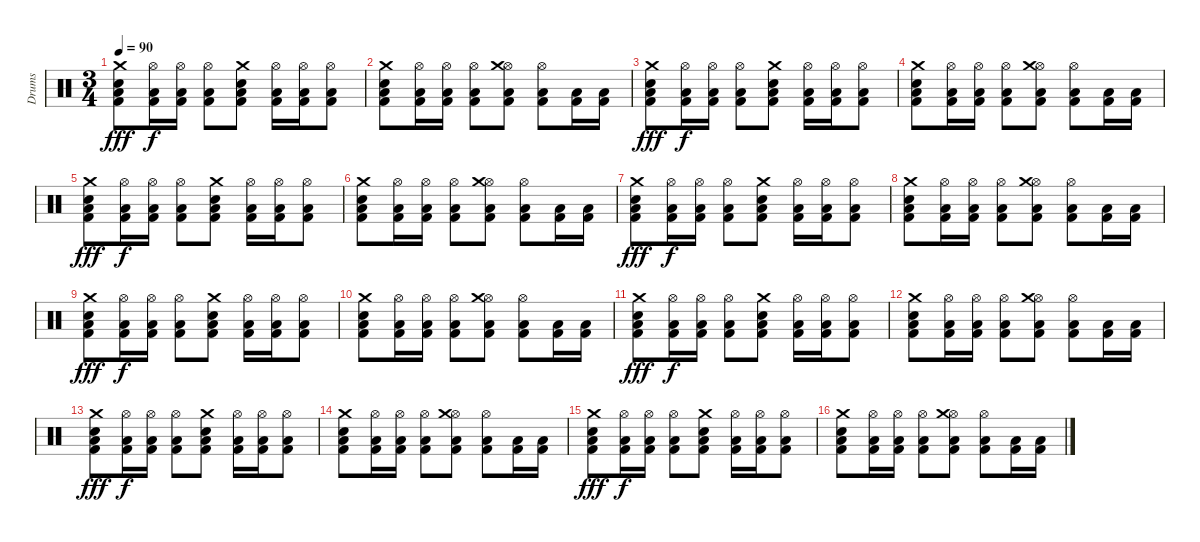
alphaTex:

\track ("Drums" "Drums") {instrument percussion}
\staff {score}
\articulation defaults
\ts (3 4)
\tempo 90
\clef neutral
\ks c
("Kick (hit) 2" "Low Floor Tom (hit)" "Electric Snare (hit)" "Crash medium (hit)").8{dy fff} ("Kick (hit) 2" "Low Floor Tom (hit)" "Hi-Hat (open)").16{dy f} ("Kick (hit) 2" "Low Floor Tom (hit)" "Hi-Hat (open)").16 ("Kick (hit) 2" "Low Floor Tom (hit)" "Hi-Hat (open)").8 ("Kick (hit) 2" "Low Floor Tom (hit)" "Electric Snare (hit)" "Crash medium (hit)").8 ("Kick (hit) 2" "Low Floor Tom (hit)" "Hi-Hat (open)").16 ("Kick (hit) 2" "Low Floor Tom (hit)" "Hi-Hat (open)").16 ("Kick (hit) 2" "Low Floor Tom (hit)" "Hi-Hat (open)").8 |
("Kick (hit) 2" "Low Floor Tom (hit)" "Electric Snare (hit)" "Crash medium (hit)").8 ("Kick (hit) 2" "Low Floor Tom (hit)" "Hi-Hat (open)").16 ("Kick (hit) 2" "Low Floor Tom (hit)" "Hi-Hat (open)").16 ("Kick (hit) 2" "Low Floor Tom (hit)" "Hi-Hat (open)").8 ("Kick (hit) 2" "Low Floor Tom (hit)" "Hi-Hat (open)" "Crash medium (hit)").8 ("Kick (hit) 2" "Low Floor Tom (hit)" "Hi-Hat (open)").8 ("Kick (hit) 2" "Low Floor Tom (hit)").16 ("Kick (hit) 2" "Low Floor Tom (hit)").16 |
("Kick (hit) 2" "Low Floor Tom (hit)" "Electric Snare (hit)" "Crash medium (hit)").8{dy fff} ("Kick (hit) 2" "Low Floor Tom (hit)" "Hi-Hat (open)").16{dy f} ("Kick (hit) 2" "Low Floor Tom (hit)" "Hi-Hat (open)").16 ("Kick (hit) 2" "Low Floor Tom (hit)" "Hi-Hat (open)").8 ("Kick (hit) 2" "Low Floor Tom (hit)" "Electric Snare (hit)" "Crash medium (hit)").8 ("Kick (hit) 2" "Low Floor Tom (hit)" "Hi-Hat (open)").16 ("Kick (hit) 2" "Low Floor Tom (hit)" "Hi-Hat (open)").16 ("Kick (hit) 2" "Low Floor Tom (hit)" "Hi-Hat (open)").8 |
("Kick (hit) 2" "Low Floor Tom (hit)" "Electric Snare (hit)" "Crash medium (hit)").8 ("Kick (hit) 2" "Low Floor Tom (hit)" "Hi-Hat (open)").16 ("Kick (hit) 2" "Low Floor Tom (hit)" "Hi-Hat (open)").16 ("Kick (hit) 2" "Low Floor Tom (hit)" "Hi-Hat (open)").8 ("Kick (hit) 2" "Low Floor Tom (hit)" "Hi-Hat (open)" "Crash medium (hit)").8 ("Kick (hit) 2" "Low Floor Tom (hit)" "Hi-Hat (open)").8 ("Kick (hit) 2" "Low Floor Tom (hit)").16 ("Kick (hit) 2" "Low Floor Tom (hit)").16 |
("Kick (hit) 2" "Low Floor Tom (hit)" "Electric Snare (hit)" "Crash medium (hit)").8{dy fff} ("Kick (hit) 2" "Low Floor Tom (hit)" "Hi-Hat (open)").16{dy f} ("Kick (hit) 2" "Low Floor Tom (hit)" "Hi-Hat (open)").16 ("Kick (hit) 2" "Low Floor Tom (hit)" "Hi-Hat (open)").8 ("Kick (hit) 2" "Low Floor Tom (hit)" "Electric Snare (hit)" "Crash medium (hit)").8 ("Kick (hit) 2" "Low Floor Tom (hit)" "Hi-Hat (open)").16 ("Kick (hit) 2" "Low Floor Tom (hit)" "Hi-Hat (open)").16 ("Kick (hit) 2" "Low Floor Tom (hit)" "Hi-Hat (open)").8 |
("Kick (hit) 2" "Low Floor Tom (hit)" "Electric Snare (hit)" "Crash medium (hit)").8{volume 12} ("Kick (hit) 2" "Low Floor Tom (hit)" "Hi-Hat (open)").16 ("Kick (hit) 2" "Low Floor Tom (hit)" "Hi-Hat (open)").16 ("Kick (hit) 2" "Low Floor Tom (hit)" "Hi-Hat (open)").8 ("Kick (hit) 2" "Low Floor Tom (hit)" "Hi-Hat (open)" "Crash medium (hit)").8{volume 11} ("Kick (hit) 2" "Low Floor Tom (hit)" "Hi-Hat (open)").8 ("Kick (hit) 2" "Low Floor Tom (hit)").16 ("Kick (hit) 2" "Low Floor Tom (hit)").16 |
("Kick (hit) 2" "Low Floor Tom (hit)" "Electric Snare (hit)" "Crash medium (hit)").8{dy fff volume 10} ("Kick (hit) 2" "Low Floor Tom (hit)" "Hi-Hat (open)").16{dy f} ("Kick (hit) 2" "Low Floor Tom (hit)" "Hi-Hat (open)").16 ("Kick (hit) 2" "Low Floor Tom (hit)" "Hi-Hat (open)").8 ("Kick (hit) 2" "Low Floor Tom (hit)" "Electric Snare (hit)" "Crash medium (hit)").8{volume 9} ("Kick (hit) 2" "Low Floor Tom (hit)" "Hi-Hat (open)").16 ("Kick (hit) 2" "Low Floor Tom (hit)" "Hi-Hat (open)").16 ("Kick (hit) 2" "Low Floor Tom (hit)" "Hi-Hat (open)").8 |
("Kick (hit) 2" "Low Floor Tom (hit)" "Electric Snare (hit)" "Crash medium (hit)").8{volume 8} ("Kick (hit) 2" "Low Floor Tom (hit)" "Hi-Hat (open)").16 ("Kick (hit) 2" "Low Floor Tom (hit)" "Hi-Hat (open)").16 ("Kick (hit) 2" "Low Floor Tom (hit)" "Hi-Hat (open)").8 ("Kick (hit) 2" "Low Floor Tom (hit)" "Hi-Hat (open)" "Crash medium (hit)").8{volume 7} ("Kick (hit) 2" "Low Floor Tom (hit)" "Hi-Hat (open)").8 ("Kick (hit) 2" "Low Floor Tom (hit)").16 ("Kick (hit) 2" "Low Floor Tom (hit)").16 |
("Kick (hit) 2" "Low Floor Tom (hit)" "Electric Snare (hit)" "Crash medium (hit)").8{dy fff volume 6} ("Kick (hit) 2" "Low Floor Tom (hit)" "Hi-Hat (open)").16{dy f} ("Kick (hit) 2" "Low Floor Tom (hit)" "Hi-Hat (open)").16 ("Kick (hit) 2" "Low Floor Tom (hit)" "Hi-Hat (open)").8 ("Kick (hit) 2" "Low Floor Tom (hit)" "Electric Snare (hit)" "Crash medium (hit)").8{volume 5} ("Kick (hit) 2" "Low Floor Tom (hit)" "Hi-Hat (open)").16 ("Kick (hit) 2" "Low Floor Tom (hit)" "Hi-Hat (open)").16 ("Kick (hit) 2" "Low Floor Tom (hit)" "Hi-Hat (open)").8 |
("Kick (hit) 2" "Low Floor Tom (hit)" "Electric Snare (hit)" "Crash medium (hit)").8{volume 4} ("Kick (hit) 2" "Low Floor Tom (hit)" "Hi-Hat (open)").16 ("Kick (hit) 2" "Low Floor Tom (hit)" "Hi-Hat (open)").16 ("Kick (hit) 2" "Low Floor Tom (hit)" "Hi-Hat (open)").8 ("Kick (hit) 2" "Low Floor Tom (hit)" "Hi-Hat (open)" "Crash medium (hit)").8 ("Kick (hit) 2" "Low Floor Tom (hit)" "Hi-Hat (open)").8 ("Kick (hit) 2" "Low Floor Tom (hit)").16 ("Kick (hit) 2" "Low Floor Tom (hit)").16 |
("Kick (hit) 2" "Low Floor Tom (hit)" "Electric Snare (hit)" "Crash medium (hit)").8{dy fff volume 3} ("Kick (hit) 2" "Low Floor Tom (hit)" "Hi-Hat (open)").16{dy f} ("Kick (hit) 2" "Low Floor Tom (hit)" "Hi-Hat (open)").16 ("Kick (hit) 2" "Low Floor Tom (hit)" "Hi-Hat (open)").8 ("Kick (hit) 2" "Low Floor Tom (hit)" "Electric Snare (hit)" "Crash medium (hit)").8 ("Kick (hit) 2" "Low Floor Tom (hit)" "Hi-Hat (open)").16 ("Kick (hit) 2" "Low Floor Tom (hit)" "Hi-Hat (open)").16 ("Kick (hit) 2" "Low Floor Tom (hit)" "Hi-Hat (open)").8 |
("Kick (hit) 2" "Low Floor Tom (hit)" "Electric Snare (hit)" "Crash medium (hit)").8{volume 2} ("Kick (hit) 2" "Low Floor Tom (hit)" "Hi-Hat (open)").16 ("Kick (hit) 2" "Low Floor Tom (hit)" "Hi-Hat (open)").16 ("Kick (hit) 2" "Low Floor Tom (hit)" "Hi-Hat (open)").8 ("Kick (hit) 2" "Low Floor Tom (hit)" "Hi-Hat (open)" "Crash medium (hit)").8{volume 1} ("Kick (hit) 2" "Low Floor Tom (hit)" "Hi-Hat (open)").8 ("Kick (hit) 2" "Low Floor Tom (hit)").16 ("Kick (hit) 2" "Low Floor Tom (hit)").16 |
("Kick (hit) 2" "Low Floor Tom (hit)" "Electric Snare (hit)" "Crash medium (hit)").8{dy fff volume 0} ("Kick (hit) 2" "Low Floor Tom (hit)" "Hi-Hat (open)").16{dy f} ("Kick (hit) 2" "Low Floor Tom (hit)" "Hi-Hat (open)").16 ("Kick (hit) 2" "Low Floor Tom (hit)" "Hi-Hat (open)").8 ("Kick (hit) 2" "Low Floor Tom (hit)" "Electric Snare (hit)" "Crash medium (hit)").8 ("Kick (hit) 2" "Low Floor Tom (hit)" "Hi-Hat (open)").16 ("Kick (hit) 2" "Low Floor Tom (hit)" "Hi-Hat (open)").16 ("Kick (hit) 2" "Low Floor Tom (hit)" "Hi-Hat (open)").8 |
("Kick (hit) 2" "Low Floor Tom (hit)" "Electric Snare (hit)" "Crash medium (hit)").8 ("Kick (hit) 2" "Low Floor Tom (hit)" "Hi-Hat (open)").16 ("Kick (hit) 2" "Low Floor Tom (hit)" "Hi-Hat (open)").16 ("Kick (hit) 2" "Low Floor Tom (hit)" "Hi-Hat (open)").8 ("Kick (hit) 2" "Low Floor Tom (hit)" "Hi-Hat (open)" "Crash medium (hit)").8 ("Kick (hit) 2" "Low Floor Tom (hit)" "Hi-Hat (open)").8 ("Kick (hit) 2" "Low Floor Tom (hit)").16 ("Kick (hit) 2" "Low Floor Tom (hit)").16 |
("Kick (hit) 2" "Low Floor Tom (hit)" "Electric Snare (hit)" "Crash medium (hit)").8{dy fff} ("Kick (hit) 2" "Low Floor Tom (hit)" "Hi-Hat (open)").16{dy f} ("Kick (hit) 2" "Low Floor Tom (hit)" "Hi-Hat (open)").16 ("Kick (hit) 2" "Low Floor Tom (hit)" "Hi-Hat (open)").8 ("Kick (hit) 2" "Low Floor Tom (hit)" "Electric Snare (hit)" "Crash medium (hit)").8 ("Kick (hit) 2" "Low Floor Tom (hit)" "Hi-Hat (open)").16 ("Kick (hit) 2" "Low Floor Tom (hit)" "Hi-Hat (open)").16 ("Kick (hit) 2" "Low Floor Tom (hit)" "Hi-Hat (open)").8 |
("Kick (hit) 2" "Low Floor Tom (hit)" "Electric Snare (hit)" "Crash medium (hit)").8 ("Kick (hit) 2" "Low Floor Tom (hit)" "Hi-Hat (open)").16 ("Kick (hit) 2" "Low Floor Tom (hit)" "Hi-Hat (open)").16 ("Kick (hit) 2" "Low Floor Tom (hit)" "Hi-Hat (open)").8 ("Kick (hit) 2" "Low Floor Tom (hit)" "Hi-Hat (open)" "Crash medium (hit)").8 ("Kick (hit) 2" "Low Floor Tom (hit)" "Hi-Hat (open)").8 ("Kick (hit) 2" "Low Floor Tom (hit)").16 ("Kick (hit) 2" "Low Floor Tom (hit)").16
